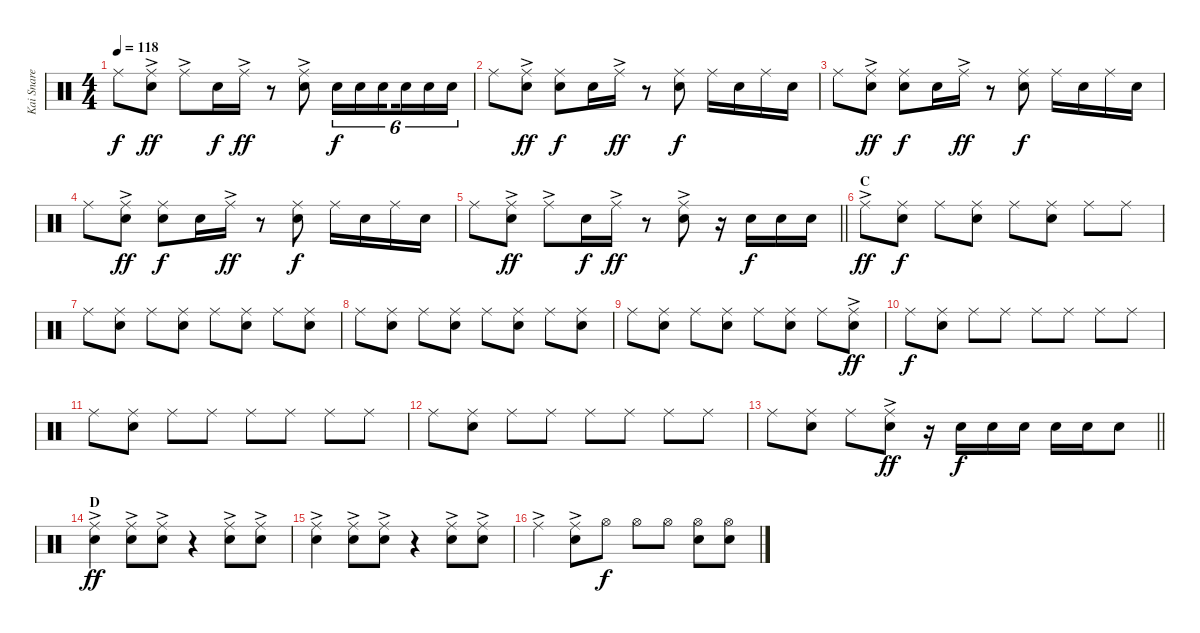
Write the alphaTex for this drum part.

\track ("Kai Snare" "Kai Snare") {instrument percussion}
\staff {score}
\articulation defaults
\ts (4 4)
\tempo 118
\clef neutral
\ks c "Ride (middle)".8{dy f}
("Ride (middle)"{ac} "Snare (hit) 2").8{dy ff} "Ride (middle)"{ac}.8 "Snare (hit) 2".16{dy f} "Ride (middle)"{ac}.16{dy ff} r.8 ("Ride (middle)"{ac} "Snare (hit) 2").8 "Snare (hit) 2".16{tu (6 4) dy f} "Snare (hit) 2".16{tu (6 4)} "Snare (hit) 2".16{tu (6 4) beam splitsecondary} "Snare (hit) 2".16{tu (6 4)} "Snare (hit) 2".16{tu (6 4)} "Snare (hit) 2".16{tu (6 4)} |
"Ride (middle)".8 ("Ride (middle)"{ac} "Snare (hit) 2").8{dy ff} ("Ride (middle)" "Snare (hit) 2").8{dy f} "Snare (hit) 2".16 "Ride (middle)"{ac}.16{dy ff} r.8 ("Ride (middle)" "Snare (hit) 2").8{dy f} "Ride (middle)".16 "Snare (hit) 2".16 "Ride (middle)".16 "Snare (hit) 2".16 |
"Ride (middle)".8 ("Ride (middle)"{ac} "Snare (hit) 2").8{dy ff} ("Ride (middle)" "Snare (hit) 2").8{dy f} "Snare (hit) 2".16 "Ride (middle)"{ac}.16{dy ff} r.8 ("Ride (middle)" "Snare (hit) 2").8{dy f} "Ride (middle)".16 "Snare (hit) 2".16 "Ride (middle)".16 "Snare (hit) 2".16 |
"Ride (middle)".8 ("Ride (middle)"{ac} "Snare (hit) 2").8{dy ff} ("Ride (middle)" "Snare (hit) 2").8{dy f} "Snare (hit) 2".16 "Ride (middle)"{ac}.16{dy ff} r.8 ("Ride (middle)" "Snare (hit) 2").8{dy f} "Ride (middle)".16 "Snare (hit) 2".16 "Ride (middle)".16 "Snare (hit) 2".16 |
\barLineRight lightlight "Ride (middle)".8
("Ride (middle)"{ac} "Snare (hit) 2").8{dy ff} "Ride (middle)"{ac}.8 "Snare (hit) 2".16{dy f} "Ride (middle)"{ac}.16{dy ff} r.8 ("Ride (middle)"{ac} "Snare (hit) 2").8 r.16 "Snare (hit) 2".16{dy f} "Snare (hit) 2".16 "Snare (hit) 2".16 |
\section ("" "C")
"Ride (middle)"{ac}.8{dy ff} ("Ride (middle)" "Snare (hit) 2").8{dy f} "Ride (middle)".8 ("Ride (middle)" "Snare (hit) 2").8 "Ride (middle)".8 ("Ride (middle)" "Snare (hit) 2").8 "Ride (middle)".8 "Ride (middle)".8 |
"Ride (middle)".8 ("Ride (middle)" "Snare (hit) 2").8 "Ride (middle)".8 ("Ride (middle)" "Snare (hit) 2").8 "Ride (middle)".8 ("Ride (middle)" "Snare (hit) 2").8 "Ride (middle)".8 ("Ride (middle)" "Snare (hit) 2").8 |
"Ride (middle)".8 ("Ride (middle)" "Snare (hit) 2").8 "Ride (middle)".8 ("Ride (middle)" "Snare (hit) 2").8 "Ride (middle)".8 ("Ride (middle)" "Snare (hit) 2").8 "Ride (middle)".8 ("Ride (middle)" "Snare (hit) 2").8 |
"Ride (middle)".8 ("Ride (middle)" "Snare (hit) 2").8 "Ride (middle)".8 ("Ride (middle)" "Snare (hit) 2").8 "Ride (middle)".8 ("Ride (middle)" "Snare (hit) 2").8 "Ride (middle)".8 ("Ride (middle)"{ac} "Snare (hit) 2").8{dy ff} |
"Ride (middle)".8{dy f} ("Ride (middle)" "Snare (hit) 2").8 "Ride (middle)".8 "Ride (middle)".8 "Ride (middle)".8 "Ride (middle)".8 "Ride (middle)".8 "Ride (middle)".8 |
"Ride (middle)".8 ("Ride (middle)" "Snare (hit) 2").8 "Ride (middle)".8 "Ride (middle)".8 "Ride (middle)".8 "Ride (middle)".8 "Ride (middle)".8 "Ride (middle)".8 |
"Ride (middle)".8 ("Ride (middle)" "Snare (hit) 2").8 "Ride (middle)".8 "Ride (middle)".8 "Ride (middle)".8 "Ride (middle)".8 "Ride (middle)".8 "Ride (middle)".8 |
\barLineRight lightlight "Ride (middle)".8
("Ride (middle)" "Snare (hit) 2").8 "Ride (middle)".8 ("Ride (middle)"{ac} "Snare (hit) 2").8{dy ff} r.16 "Snare (hit) 2".16{dy f} "Snare (hit) 2".16 "Snare (hit) 2".16 "Snare (hit) 2".16 "Snare (hit) 2".16 "Snare (hit) 2".8 |
\section ("" "D")
("Ride (middle)"{ac} "Snare (hit) 2").4{dy ff} ("Ride (middle)"{ac} "Snare (hit) 2").8 ("Ride (middle)"{ac} "Snare (hit) 2").8 r.4 ("Ride (middle)"{ac} "Snare (hit) 2").8 ("Ride (middle)"{ac} "Snare (hit) 2").8 |
("Ride (middle)"{ac} "Snare (hit) 2").4 ("Ride (middle)"{ac} "Snare (hit) 2").8 ("Ride (middle)"{ac} "Snare (hit) 2").8 r.4 ("Ride (middle)"{ac} "Snare (hit) 2").8 ("Ride (middle)"{ac} "Snare (hit) 2").8 |
"Ride (middle)"{ac}.4 ("Ride (middle)"{ac} "Snare (hit) 2").8 "Hi-Hat (open)".8{dy f} "Hi-Hat (open)".8 "Hi-Hat (open)".8 ("Hi-Hat (open)" "Snare (hit) 2").8 ("Hi-Hat (open)" "Snare (hit) 2").8
